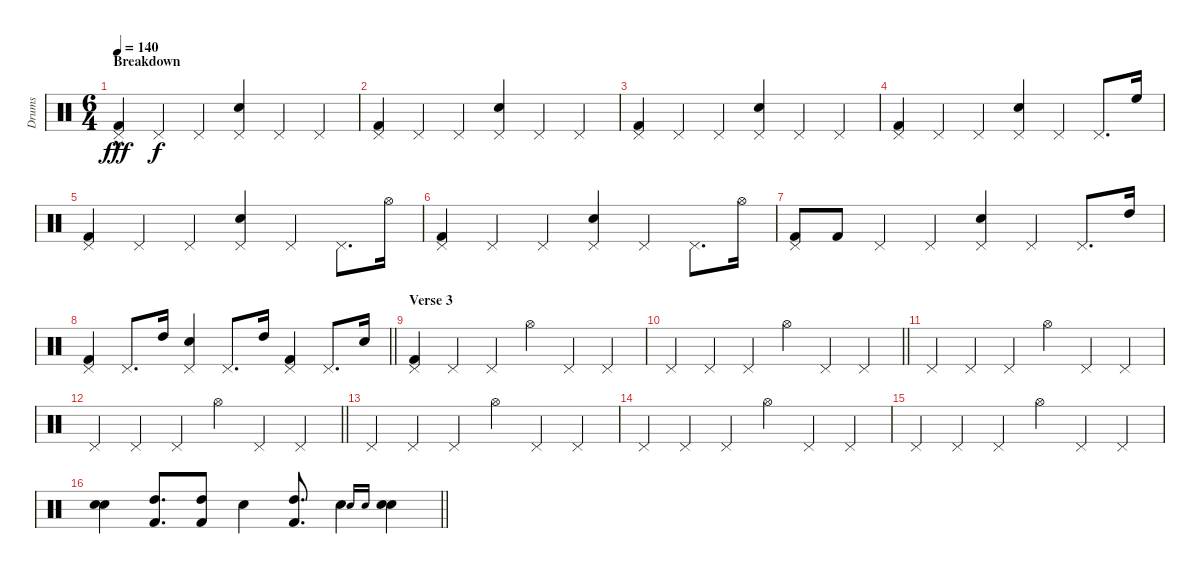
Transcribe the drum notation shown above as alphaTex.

\track ("Drums" "Drums") {instrument percussion}
\staff {score}
\articulation defaults
\ts (6 4)
\section ("" "Breakdown")
\tempo 140
\clef neutral
\ks c
("Pedal Hi-Hat (hit)"{hac} "Kick (hit) 2").4{dy fff volume 8} "Pedal Hi-Hat (hit)".4{dy f} "Pedal Hi-Hat (hit)".4 ("Pedal Hi-Hat (hit)" "Electric Snare (hit)").4 "Pedal Hi-Hat (hit)".4 "Pedal Hi-Hat (hit)".4 |
("Pedal Hi-Hat (hit)" "Kick (hit) 2").4 "Pedal Hi-Hat (hit)".4 "Pedal Hi-Hat (hit)".4 ("Pedal Hi-Hat (hit)" "Electric Snare (hit)").4 "Pedal Hi-Hat (hit)".4 "Pedal Hi-Hat (hit)".4 |
("Pedal Hi-Hat (hit)" "Kick (hit) 2").4 "Pedal Hi-Hat (hit)".4 "Pedal Hi-Hat (hit)".4 ("Pedal Hi-Hat (hit)" "Electric Snare (hit)").4 "Pedal Hi-Hat (hit)".4 "Pedal Hi-Hat (hit)".4 |
("Pedal Hi-Hat (hit)" "Kick (hit) 2").4 "Pedal Hi-Hat (hit)".4 "Pedal Hi-Hat (hit)".4 ("Pedal Hi-Hat (hit)" "Electric Snare (hit)").4 "Pedal Hi-Hat (hit)".4 "Pedal Hi-Hat (hit)".8{d} "High Floor Tom (hit)".16 |
("Pedal Hi-Hat (hit)" "Kick (hit) 2").4 "Pedal Hi-Hat (hit)".4 "Pedal Hi-Hat (hit)".4 ("Pedal Hi-Hat (hit)" "Electric Snare (hit)").4 "Pedal Hi-Hat (hit)".4 "Pedal Hi-Hat (hit)".8{d} "Hi-Hat (open)".16 |
("Pedal Hi-Hat (hit)" "Kick (hit) 2").4 "Pedal Hi-Hat (hit)".4 "Pedal Hi-Hat (hit)".4 ("Pedal Hi-Hat (hit)" "Electric Snare (hit)").4 "Pedal Hi-Hat (hit)".4 "Pedal Hi-Hat (hit)".8{d} "Hi-Hat (open)".16 |
("Pedal Hi-Hat (hit)" "Kick (hit) 2").8 "Kick (hit) 2".8 "Pedal Hi-Hat (hit)".4 "Pedal Hi-Hat (hit)".4 ("Pedal Hi-Hat (hit)" "Electric Snare (hit)").4 "Pedal Hi-Hat (hit)".4 "Pedal Hi-Hat (hit)".8{d} "High Tom (hit)".16 |
\barLineRight lightlight
("Pedal Hi-Hat (hit)" "Kick (hit) 2").4 "Pedal Hi-Hat (hit)".8{d} "High Tom (hit)".16 ("Pedal Hi-Hat (hit)" "Electric Snare (hit)").4 "Pedal Hi-Hat (hit)".8{d} "High Tom (hit)".16 ("Pedal Hi-Hat (hit)" "Kick (hit) 2").4 "Pedal Hi-Hat (hit)".8{d} "Electric Snare (hit)".16 |
\section ("" "Verse 3")
("Pedal Hi-Hat (hit)" "Kick (hit) 2").4 "Pedal Hi-Hat (hit)".4 "Pedal Hi-Hat (hit)".4 "Hi-Hat (open)".4 "Pedal Hi-Hat (hit)".4 "Pedal Hi-Hat (hit)".4 |
\barLineRight lightlight "Pedal Hi-Hat (hit)".4 "Pedal Hi-Hat (hit)".4 "Pedal Hi-Hat (hit)".4 "Hi-Hat (open)".4 "Pedal Hi-Hat (hit)".4 "Pedal Hi-Hat (hit)".4
|
"Pedal Hi-Hat (hit)".4 "Pedal Hi-Hat (hit)".4 "Pedal Hi-Hat (hit)".4 "Hi-Hat (open)".4 "Pedal Hi-Hat (hit)".4 "Pedal Hi-Hat (hit)".4 |
\barLineRight lightlight "Pedal Hi-Hat (hit)".4 "Pedal Hi-Hat (hit)".4 "Pedal Hi-Hat (hit)".4 "Hi-Hat (open)".4 "Pedal Hi-Hat (hit)".4 "Pedal Hi-Hat (hit)".4
|
"Pedal Hi-Hat (hit)".4 "Pedal Hi-Hat (hit)".4 "Pedal Hi-Hat (hit)".4 "Hi-Hat (open)".4 "Pedal Hi-Hat (hit)".4 "Pedal Hi-Hat (hit)".4 |
"Pedal Hi-Hat (hit)".4 "Pedal Hi-Hat (hit)".4 "Pedal Hi-Hat (hit)".4 "Hi-Hat (open)".4 "Pedal Hi-Hat (hit)".4 "Pedal Hi-Hat (hit)".4 |
"Pedal Hi-Hat (hit)".4 "Pedal Hi-Hat (hit)".4 "Pedal Hi-Hat (hit)".4 "Hi-Hat (open)".4 "Pedal Hi-Hat (hit)".4 "Pedal Hi-Hat (hit)".4 |
\barLineRight lightlight
("Electric Snare (hit)" "Electric Snare (hit)").4 ("High Tom (hit)" "Kick (hit) 2").8{d} ("High Tom (hit)" "Kick (hit) 2").8 "Electric Snare (hit)".4 ("High Tom (hit)" "Kick (hit) 2").8{d} "Electric Snare (hit)".4 "Electric Snare (hit)".16{gr onbeat} "Electric Snare (hit)".16{gr onbeat} ("Electric Snare (hit)" "Electric Snare (hit)").4
